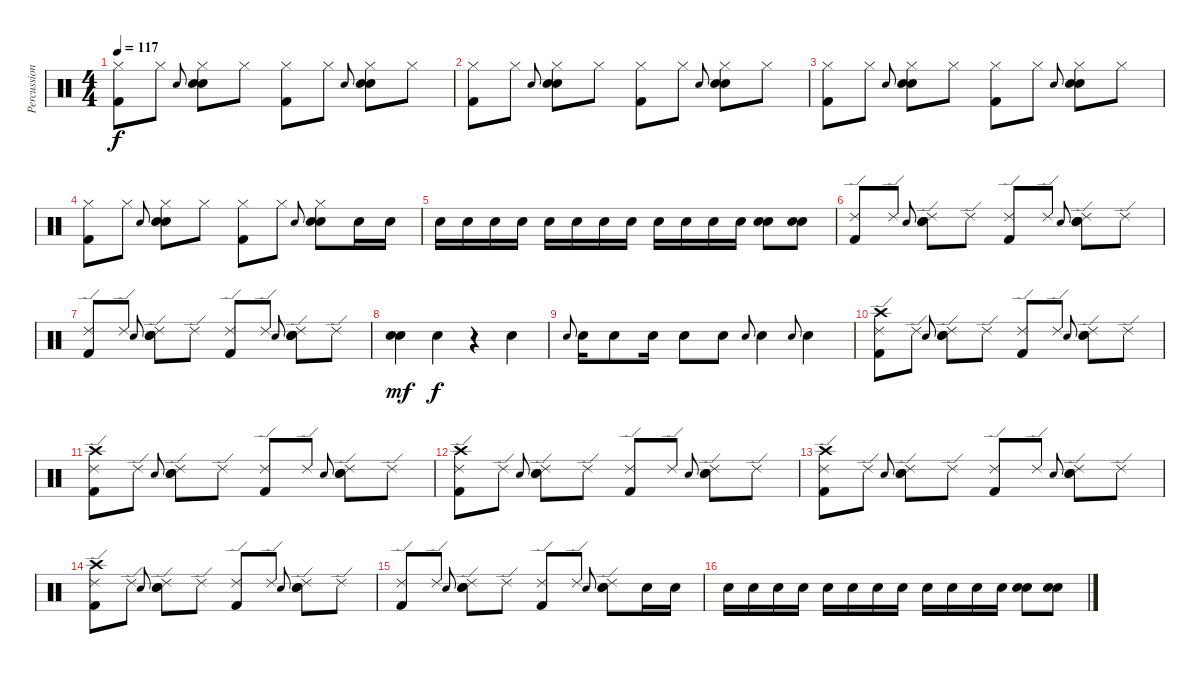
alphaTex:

\track ("Percussion" "Percussion") {instrument percussion}
\staff {score}
\articulation defaults
\ts (4 4)
\tempo 117
\clef neutral
\ks c
("Hi-Hat (closed)" "Kick (hit) 2").8{dy f} "Hi-Hat (closed)".8 "Electric Snare (hit)".8{gr onbeat} ("Hi-Hat (closed)" "Electric Snare (hit)" "Electric Snare (hit)").8 "Hi-Hat (closed)".8 ("Hi-Hat (closed)" "Kick (hit) 2").8 "Hi-Hat (closed)".8 "Electric Snare (hit)".8{gr onbeat} ("Hi-Hat (closed)" "Electric Snare (hit)" "Electric Snare (hit)").8 "Hi-Hat (closed)".8 |
("Hi-Hat (closed)" "Kick (hit) 2").8 "Hi-Hat (closed)".8 "Electric Snare (hit)".8{gr onbeat} ("Hi-Hat (closed)" "Electric Snare (hit)" "Electric Snare (hit)").8 "Hi-Hat (closed)".8 ("Hi-Hat (closed)" "Kick (hit) 2").8 "Hi-Hat (closed)".8 "Electric Snare (hit)".8{gr onbeat} ("Hi-Hat (closed)" "Electric Snare (hit)" "Electric Snare (hit)").8 "Hi-Hat (closed)".8 |
("Hi-Hat (closed)" "Kick (hit) 2").8 "Hi-Hat (closed)".8 "Electric Snare (hit)".8{gr onbeat} ("Hi-Hat (closed)" "Electric Snare (hit)" "Electric Snare (hit)").8 "Hi-Hat (closed)".8 ("Hi-Hat (closed)" "Kick (hit) 2").8 "Hi-Hat (closed)".8 "Electric Snare (hit)".8{gr onbeat} ("Hi-Hat (closed)" "Electric Snare (hit)" "Electric Snare (hit)").8 "Hi-Hat (closed)".8 |
("Hi-Hat (closed)" "Kick (hit) 2").8 "Hi-Hat (closed)".8 "Electric Snare (hit)".8{gr onbeat} ("Hi-Hat (closed)" "Electric Snare (hit)" "Electric Snare (hit)").8 "Hi-Hat (closed)".8 ("Hi-Hat (closed)" "Kick (hit) 2").8 "Hi-Hat (closed)".8 "Electric Snare (hit)".8{gr onbeat} ("Hi-Hat (closed)" "Electric Snare (hit)" "Electric Snare (hit)").8 "Electric Snare (hit)".16 "Electric Snare (hit)".16 |
"Electric Snare (hit)".16 "Electric Snare (hit)".16 "Electric Snare (hit)".16 "Electric Snare (hit)".16 "Electric Snare (hit)".16 "Electric Snare (hit)".16 "Electric Snare (hit)".16 "Electric Snare (hit)".16 "Electric Snare (hit)".16 "Electric Snare (hit)".16 "Electric Snare (hit)".16 "Electric Snare (hit)".16 ("Electric Snare (hit)" "Electric Snare (hit)").8 ("Electric Snare (hit)" "Electric Snare (hit)").8 |
("Ride (edge) 2" "Kick (hit) 2").8 "Ride (edge) 2".8 "Electric Snare (hit)".8{gr onbeat} ("Ride (edge) 2" "Hand Clap (hit)" "Electric Snare (hit)" "Electric Snare (hit)").8 "Ride (edge) 2".8 ("Ride (edge) 2" "Kick (hit) 2").8 "Ride (edge) 2".8 "Electric Snare (hit)".8{gr onbeat} ("Ride (edge) 2" "Hand Clap (hit)" "Electric Snare (hit)" "Electric Snare (hit)").8 "Ride (edge) 2".8 |
("Ride (edge) 2" "Kick (hit) 2").8 "Ride (edge) 2".8 "Electric Snare (hit)".8{gr onbeat} ("Ride (edge) 2" "Hand Clap (hit)" "Electric Snare (hit)" "Electric Snare (hit)").8 "Ride (edge) 2".8 ("Ride (edge) 2" "Kick (hit) 2").8 "Ride (edge) 2".8 "Electric Snare (hit)".8{gr onbeat} ("Ride (edge) 2" "Hand Clap (hit)" "Electric Snare (hit)" "Electric Snare (hit)").8 "Ride (edge) 2".8 |
("Electric Snare (hit)" "Electric Snare (hit)").4{dy mf} "Hand Clap (hit)".4{dy f} r.4 "Hand Clap (hit)".4 |
"Electric Snare (hit)".8{gr onbeat} "Electric Snare (hit)".16 "Electric Snare (hit)".8 "Electric Snare (hit)".16 "Electric Snare (hit)".8 "Electric Snare (hit)".8 "Electric Snare (hit)".8{gr onbeat} "Electric Snare (hit)".4 "Electric Snare (hit)".8{gr onbeat} "Electric Snare (hit)".4 |
("Ride (edge) 2" "Crash high (hit)" "Kick (hit) 2").8 "Ride (edge) 2".8 "Electric Snare (hit)".8{gr onbeat} ("Ride (edge) 2" "Electric Snare (hit)" "Electric Snare (hit)").8 "Ride (edge) 2".8 ("Ride (edge) 2" "Kick (hit) 2").8 "Ride (edge) 2".8 "Electric Snare (hit)".8{gr onbeat} ("Ride (edge) 2" "Electric Snare (hit)" "Electric Snare (hit)").8 "Ride (edge) 2".8 |
("Ride (edge) 2" "Crash high (hit)" "Kick (hit) 2").8 "Ride (edge) 2".8 "Electric Snare (hit)".8{gr onbeat} ("Ride (edge) 2" "Electric Snare (hit)" "Electric Snare (hit)").8 "Ride (edge) 2".8 ("Ride (edge) 2" "Kick (hit) 2").8 "Ride (edge) 2".8 "Electric Snare (hit)".8{gr onbeat} ("Ride (edge) 2" "Electric Snare (hit)" "Electric Snare (hit)").8 "Ride (edge) 2".8 |
("Ride (edge) 2" "Crash high (hit)" "Kick (hit) 2").8 "Ride (edge) 2".8 "Electric Snare (hit)".8{gr onbeat} ("Ride (edge) 2" "Electric Snare (hit)" "Electric Snare (hit)").8 "Ride (edge) 2".8 ("Ride (edge) 2" "Kick (hit) 2").8 "Ride (edge) 2".8 "Electric Snare (hit)".8{gr onbeat} ("Ride (edge) 2" "Electric Snare (hit)" "Electric Snare (hit)").8 "Ride (edge) 2".8 |
("Ride (edge) 2" "Crash high (hit)" "Kick (hit) 2").8 "Ride (edge) 2".8 "Electric Snare (hit)".8{gr onbeat} ("Ride (edge) 2" "Electric Snare (hit)" "Electric Snare (hit)").8 "Ride (edge) 2".8 ("Ride (edge) 2" "Kick (hit) 2").8 "Ride (edge) 2".8 "Electric Snare (hit)".8{gr onbeat} ("Ride (edge) 2" "Electric Snare (hit)" "Electric Snare (hit)").8 "Ride (edge) 2".8 |
("Ride (edge) 2" "Crash high (hit)" "Kick (hit) 2").8 "Ride (edge) 2".8 "Electric Snare (hit)".8{gr onbeat} ("Ride (edge) 2" "Electric Snare (hit)" "Electric Snare (hit)").8 "Ride (edge) 2".8 ("Ride (edge) 2" "Kick (hit) 2").8 "Ride (edge) 2".8 "Electric Snare (hit)".8{gr onbeat} ("Ride (edge) 2" "Electric Snare (hit)" "Electric Snare (hit)").8 "Ride (edge) 2".8 |
("Ride (edge) 2" "Kick (hit) 2").8 "Ride (edge) 2".8 "Electric Snare (hit)".8{gr onbeat} ("Ride (edge) 2" "Electric Snare (hit)" "Electric Snare (hit)").8 "Ride (edge) 2".8 ("Ride (edge) 2" "Kick (hit) 2").8 "Ride (edge) 2".8 "Electric Snare (hit)".8{gr onbeat} ("Ride (edge) 2" "Electric Snare (hit)" "Electric Snare (hit)").8 "Electric Snare (hit)".16 "Electric Snare (hit)".16 |
"Electric Snare (hit)".16 "Electric Snare (hit)".16 "Electric Snare (hit)".16 "Electric Snare (hit)".16 "Electric Snare (hit)".16 "Electric Snare (hit)".16 "Electric Snare (hit)".16 "Electric Snare (hit)".16 "Electric Snare (hit)".16 "Electric Snare (hit)".16 "Electric Snare (hit)".16 "Electric Snare (hit)".16 ("Electric Snare (hit)" "Electric Snare (hit)").8 ("Electric Snare (hit)" "Electric Snare (hit)").8
